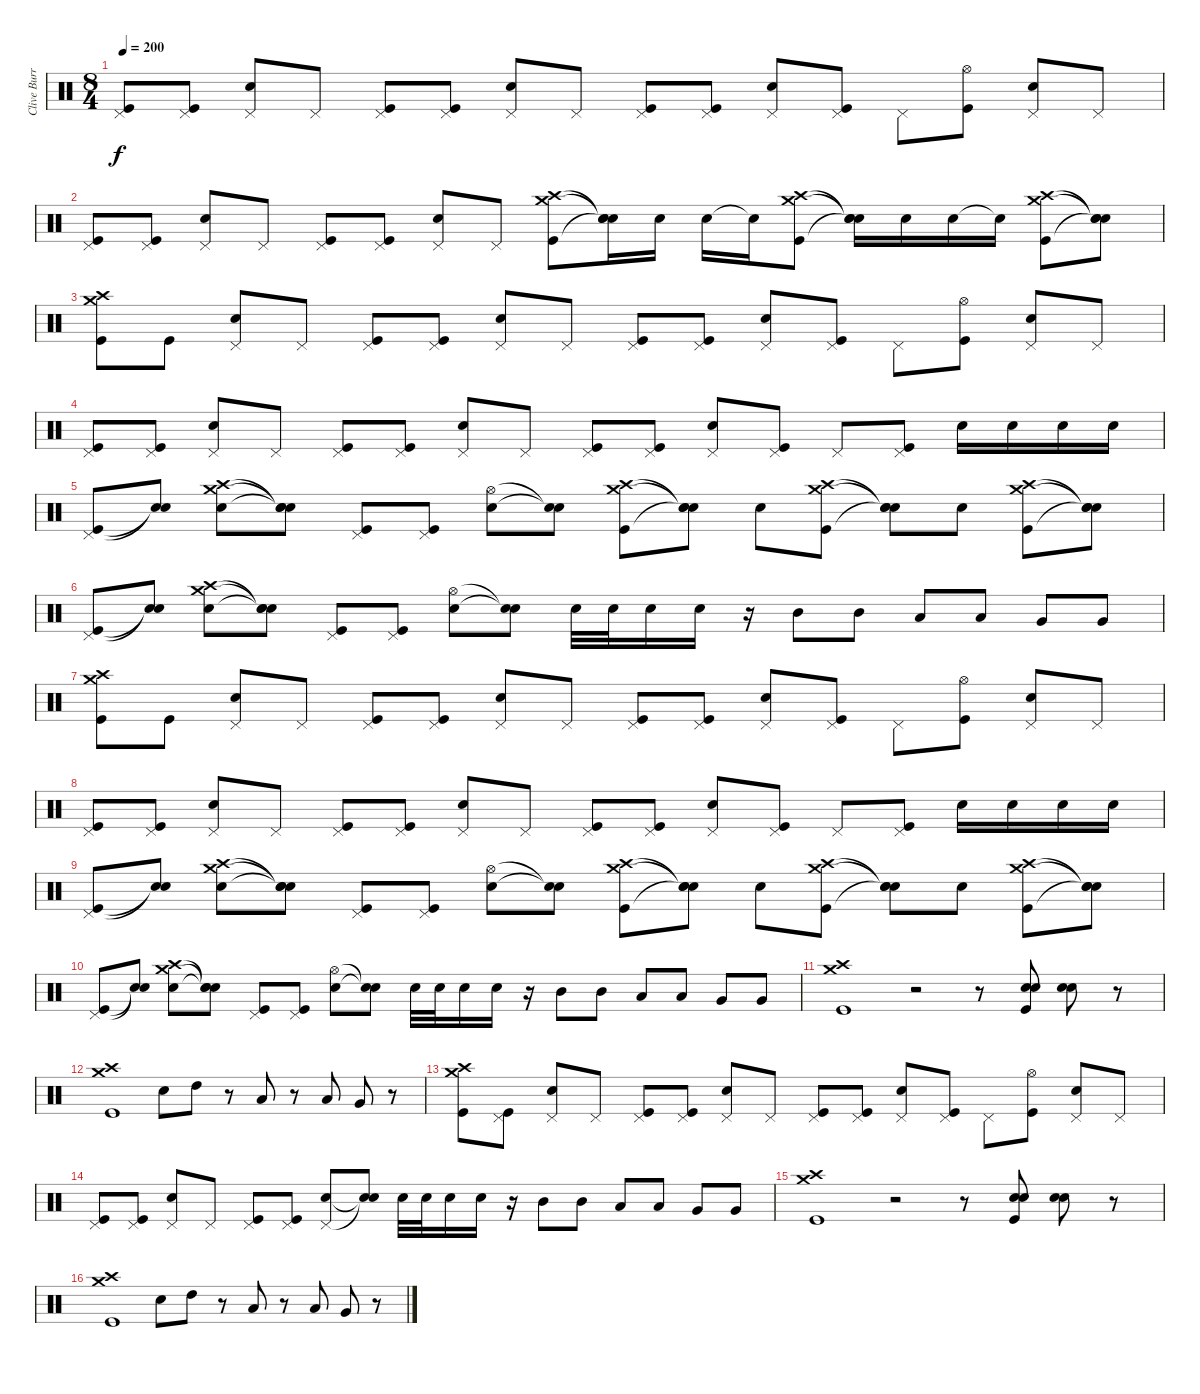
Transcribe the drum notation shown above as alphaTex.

\track ("Clive Burr" "Clive Burr") {instrument percussion}
\staff {score}
\articulation defaults
\ts (8 4)
\tempo 200
\clef neutral
\ks c
("Pedal Hi-Hat (hit)" "Kick (hit)").8{dy f} ("Pedal Hi-Hat (hit)" "Kick (hit)").8 ("Pedal Hi-Hat (hit)" "Snare (hit) 2").8 "Pedal Hi-Hat (hit)".8 ("Pedal Hi-Hat (hit)" "Kick (hit)").8 ("Pedal Hi-Hat (hit)" "Kick (hit)").8 ("Pedal Hi-Hat (hit)" "Snare (hit) 2").8 "Pedal Hi-Hat (hit)".8 ("Pedal Hi-Hat (hit)" "Kick (hit)").8 ("Pedal Hi-Hat (hit)" "Kick (hit)").8 ("Pedal Hi-Hat (hit)" "Snare (hit) 2").8 ("Pedal Hi-Hat (hit)" "Kick (hit)").8 "Pedal Hi-Hat (hit)".8 ("Hi-Hat (open)" "Kick (hit)").8 ("Pedal Hi-Hat (hit)" "Snare (hit) 2").8 "Pedal Hi-Hat (hit)".8 |
("Pedal Hi-Hat (hit)" "Kick (hit)").8 ("Pedal Hi-Hat (hit)" "Kick (hit)").8 ("Pedal Hi-Hat (hit)" "Snare (hit) 2").8 "Pedal Hi-Hat (hit)".8 ("Pedal Hi-Hat (hit)" "Kick (hit)").8 ("Pedal Hi-Hat (hit)" "Kick (hit)").8 ("Pedal Hi-Hat (hit)" "Snare (hit) 2").8 "Pedal Hi-Hat (hit)".8 ("Crash medium (hit)" "Crash high (hit)" "Kick (hit)").8 ("Snare (hit)"{t} "Snare (hit)"{t} "Snare (hit)"{t}).16 "Snare (hit) 2".16 "Snare (hit) 2".16 "Snare (hit)"{t}.16 ("Crash medium (hit)" "Crash high (hit)" "Kick (hit)").8 ("Snare (hit)"{t} "Snare (hit)"{t} "Snare (hit)"{t}).16 "Snare (hit) 2".16 "Snare (hit) 2".16 "Snare (hit)"{t}.16 ("Crash medium (hit)" "Crash high (hit)" "Kick (hit)").8 ("Snare (hit)"{t} "Snare (hit)"{t} "Snare (hit)"{t}).8 |
("Crash medium (hit)" "Crash high (hit)" "Kick (hit)").8 "Kick (hit)".8 ("Pedal Hi-Hat (hit)" "Snare (hit) 2").8 "Pedal Hi-Hat (hit)".8 ("Pedal Hi-Hat (hit)" "Kick (hit)").8 ("Pedal Hi-Hat (hit)" "Kick (hit)").8 ("Pedal Hi-Hat (hit)" "Snare (hit) 2").8 "Pedal Hi-Hat (hit)".8 ("Pedal Hi-Hat (hit)" "Kick (hit)").8 ("Pedal Hi-Hat (hit)" "Kick (hit)").8 ("Pedal Hi-Hat (hit)" "Snare (hit) 2").8 ("Pedal Hi-Hat (hit)" "Kick (hit)").8 "Pedal Hi-Hat (hit)".8 ("Hi-Hat (open)" "Kick (hit)").8 ("Pedal Hi-Hat (hit)" "Snare (hit) 2").8 "Pedal Hi-Hat (hit)".8 |
("Pedal Hi-Hat (hit)" "Kick (hit)").8 ("Pedal Hi-Hat (hit)" "Kick (hit)").8 ("Pedal Hi-Hat (hit)" "Snare (hit) 2").8 "Pedal Hi-Hat (hit)".8 ("Pedal Hi-Hat (hit)" "Kick (hit)").8 ("Pedal Hi-Hat (hit)" "Kick (hit)").8 ("Pedal Hi-Hat (hit)" "Snare (hit) 2").8 "Pedal Hi-Hat (hit)".8 ("Pedal Hi-Hat (hit)" "Kick (hit)").8 ("Pedal Hi-Hat (hit)" "Kick (hit)").8 ("Pedal Hi-Hat (hit)" "Snare (hit) 2").8 ("Pedal Hi-Hat (hit)" "Kick (hit)").8 "Pedal Hi-Hat (hit)".8 ("Pedal Hi-Hat (hit)" "Kick (hit)").8 "Snare (hit) 2".16 "Snare (hit) 2".16 "Snare (hit) 2".16 "Snare (hit) 2".16 |
("Pedal Hi-Hat (hit)" "Kick (hit)").8 ("Snare (hit)"{t} "Snare (hit)"{t}).8 ("Crash medium (hit)" "Crash high (hit)" "Snare (hit) 2").8 ("Snare (hit)"{t} "Snare (hit)"{t} "Snare (hit)"{t}).8 ("Pedal Hi-Hat (hit)" "Kick (hit)").8 ("Pedal Hi-Hat (hit)" "Kick (hit)").8 ("Hi-Hat (open)" "Snare (hit) 2").8 ("Snare (hit)"{t} "Snare (hit)"{t}).8 ("Crash medium (hit)" "Crash high (hit)" "Kick (hit)").8 ("Snare (hit)"{t} "Snare (hit)"{t} "Snare (hit)"{t}).8 "Snare (hit) 2".8 ("Crash medium (hit)" "Crash high (hit)" "Kick (hit)").8 ("Snare (hit)"{t} "Snare (hit)"{t} "Snare (hit)"{t}).8 "Snare (hit) 2".8 ("Crash medium (hit)" "Crash high (hit)" "Kick (hit)").8 ("Snare (hit)"{t} "Snare (hit)"{t} "Snare (hit)"{t}).8 |
("Pedal Hi-Hat (hit)" "Kick (hit)").8 ("Snare (hit)"{t} "Snare (hit)"{t}).8 ("Crash medium (hit)" "Crash high (hit)" "Snare (hit) 2").8 ("Snare (hit)"{t} "Snare (hit)"{t} "Snare (hit)"{t}).8 ("Pedal Hi-Hat (hit)" "Kick (hit)").8 ("Pedal Hi-Hat (hit)" "Kick (hit)").8 ("Hi-Hat (open)" "Snare (hit) 2").8 ("Snare (hit)"{t} "Snare (hit)"{t}).8 "Snare (hit) 2".32 "Snare (hit) 2".32 "Snare (hit) 2".16 "Snare (hit) 2".16 r.16 "Mid Tom (hit)".8 "Mid Tom (hit)".8 "Low Tom (hit)".8 "Low Tom (hit)".8 "Very Low Tom (hit)".8 "Very Low Tom (hit)".8 |
("Crash medium (hit)" "Crash high (hit)" "Kick (hit)").8 "Kick (hit)".8 ("Pedal Hi-Hat (hit)" "Snare (hit) 2").8 "Pedal Hi-Hat (hit)".8 ("Pedal Hi-Hat (hit)" "Kick (hit)").8 ("Pedal Hi-Hat (hit)" "Kick (hit)").8 ("Pedal Hi-Hat (hit)" "Snare (hit) 2").8 "Pedal Hi-Hat (hit)".8 ("Pedal Hi-Hat (hit)" "Kick (hit)").8 ("Pedal Hi-Hat (hit)" "Kick (hit)").8 ("Pedal Hi-Hat (hit)" "Snare (hit) 2").8 ("Pedal Hi-Hat (hit)" "Kick (hit)").8 "Pedal Hi-Hat (hit)".8 ("Hi-Hat (open)" "Kick (hit)").8 ("Pedal Hi-Hat (hit)" "Snare (hit) 2").8 "Pedal Hi-Hat (hit)".8 |
("Pedal Hi-Hat (hit)" "Kick (hit)").8 ("Pedal Hi-Hat (hit)" "Kick (hit)").8 ("Pedal Hi-Hat (hit)" "Snare (hit) 2").8 "Pedal Hi-Hat (hit)".8 ("Pedal Hi-Hat (hit)" "Kick (hit)").8 ("Pedal Hi-Hat (hit)" "Kick (hit)").8 ("Pedal Hi-Hat (hit)" "Snare (hit) 2").8 "Pedal Hi-Hat (hit)".8 ("Pedal Hi-Hat (hit)" "Kick (hit)").8 ("Pedal Hi-Hat (hit)" "Kick (hit)").8 ("Pedal Hi-Hat (hit)" "Snare (hit) 2").8 ("Pedal Hi-Hat (hit)" "Kick (hit)").8 "Pedal Hi-Hat (hit)".8 ("Pedal Hi-Hat (hit)" "Kick (hit)").8 "Snare (hit) 2".16 "Snare (hit) 2".16 "Snare (hit) 2".16 "Snare (hit) 2".16 |
("Pedal Hi-Hat (hit)" "Kick (hit)").8 ("Snare (hit)"{t} "Snare (hit)"{t}).8 ("Crash medium (hit)" "Crash high (hit)" "Snare (hit) 2").8 ("Snare (hit)"{t} "Snare (hit)"{t} "Snare (hit)"{t}).8 ("Pedal Hi-Hat (hit)" "Kick (hit)").8 ("Pedal Hi-Hat (hit)" "Kick (hit)").8 ("Hi-Hat (open)" "Snare (hit) 2").8 ("Snare (hit)"{t} "Snare (hit)"{t}).8 ("Crash medium (hit)" "Crash high (hit)" "Kick (hit)").8 ("Snare (hit)"{t} "Snare (hit)"{t} "Snare (hit)"{t}).8 "Snare (hit) 2".8 ("Crash medium (hit)" "Crash high (hit)" "Kick (hit)").8 ("Snare (hit)"{t} "Snare (hit)"{t} "Snare (hit)"{t}).8 "Snare (hit) 2".8 ("Crash medium (hit)" "Crash high (hit)" "Kick (hit)").8 ("Snare (hit)"{t} "Snare (hit)"{t} "Snare (hit)"{t}).8 |
("Pedal Hi-Hat (hit)" "Kick (hit)").8 ("Snare (hit)"{t} "Snare (hit)"{t}).8 ("Crash medium (hit)" "Crash high (hit)" "Snare (hit) 2").8 ("Snare (hit)"{t} "Snare (hit)"{t} "Snare (hit)"{t}).8 ("Pedal Hi-Hat (hit)" "Kick (hit)").8 ("Pedal Hi-Hat (hit)" "Kick (hit)").8 ("Hi-Hat (open)" "Snare (hit) 2").8 ("Snare (hit)"{t} "Snare (hit)"{t}).8 "Snare (hit) 2".32 "Snare (hit) 2".32 "Snare (hit) 2".16 "Snare (hit) 2".16 r.16 "Mid Tom (hit)".8 "Mid Tom (hit)".8 "Low Tom (hit)".8 "Low Tom (hit)".8 "Very Low Tom (hit)".8 "Very Low Tom (hit)".8 |
("Crash medium (hit)" "Crash high (hit)" "Kick (hit)").1 r.2 r.8 ("Snare (hit) 2" "Snare (hit) 2" "Kick (hit)").8 ("Snare (hit) 2" "Snare (hit) 2").8 r.8 |
("Crash medium (hit)" "Crash high (hit)" "Kick (hit)").1 "Snare (hit) 2".8 "High Tom (hit)".8 r.8 "Low Tom (hit)".8 r.8 "Low Tom (hit)".8 "Very Low Tom (hit)".8 r.8 |
("Crash medium (hit)" "Crash high (hit)" "Kick (hit)").8 ("Pedal Hi-Hat (hit)" "Kick (hit)").8 ("Pedal Hi-Hat (hit)" "Snare (hit) 2").8 "Pedal Hi-Hat (hit)".8 ("Pedal Hi-Hat (hit)" "Kick (hit)").8 ("Pedal Hi-Hat (hit)" "Kick (hit)").8 ("Pedal Hi-Hat (hit)" "Snare (hit) 2").8 "Pedal Hi-Hat (hit)".8 ("Pedal Hi-Hat (hit)" "Kick (hit)").8 ("Pedal Hi-Hat (hit)" "Kick (hit)").8 ("Pedal Hi-Hat (hit)" "Snare (hit) 2").8 ("Pedal Hi-Hat (hit)" "Kick (hit)").8 "Pedal Hi-Hat (hit)".8 ("Hi-Hat (open)" "Kick (hit)").8 ("Pedal Hi-Hat (hit)" "Snare (hit) 2").8 "Pedal Hi-Hat (hit)".8 |
("Pedal Hi-Hat (hit)" "Kick (hit)").8 ("Pedal Hi-Hat (hit)" "Kick (hit)").8 ("Pedal Hi-Hat (hit)" "Snare (hit) 2").8 "Pedal Hi-Hat (hit)".8 ("Pedal Hi-Hat (hit)" "Kick (hit)").8 ("Pedal Hi-Hat (hit)" "Kick (hit)").8 ("Pedal Hi-Hat (hit)" "Snare (hit) 2").8 ("Snare (hit)"{t} "Snare (hit)"{t}).8 "Snare (hit) 2".32 "Snare (hit) 2".32 "Snare (hit) 2".16 "Snare (hit) 2".16 r.16 "Mid Tom (hit)".8 "Mid Tom (hit)".8 "Low Tom (hit)".8 "Low Tom (hit)".8 "Very Low Tom (hit)".8 "Very Low Tom (hit)".8 |
("Crash medium (hit)" "Crash high (hit)" "Kick (hit)").1 r.2 r.8 ("Snare (hit) 2" "Snare (hit) 2" "Kick (hit)").8 ("Snare (hit) 2" "Snare (hit) 2").8 r.8 |
("Crash medium (hit)" "Crash high (hit)" "Kick (hit)").1 "Snare (hit) 2".8 "High Tom (hit)".8 r.8 "Low Tom (hit)".8 r.8 "Low Tom (hit)".8 "Very Low Tom (hit)".8 r.8
